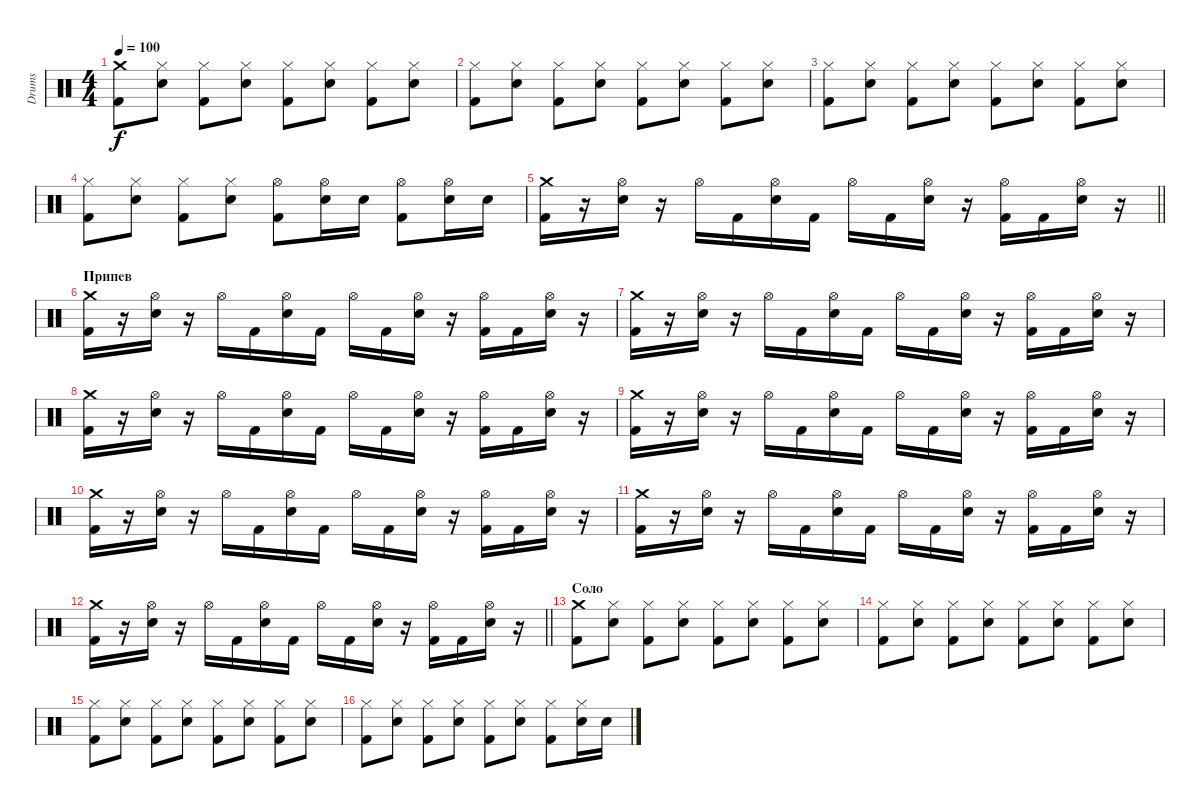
\track ("Drums" "Drums") {instrument percussion}
\staff {score}
\articulation defaults
\ts (4 4)
\tempo 100
\clef neutral
\ks c
("Crash medium (hit)" "Kick (hit) 2").8{dy f} ("Hi-Hat (closed)" "Snare (hit) 2").8 ("Hi-Hat (closed)" "Kick (hit) 2").8 ("Hi-Hat (closed)" "Snare (hit) 2").8 ("Hi-Hat (closed)" "Kick (hit) 2").8 ("Hi-Hat (closed)" "Snare (hit) 2").8 ("Hi-Hat (closed)" "Kick (hit) 2").8 ("Hi-Hat (closed)" "Snare (hit) 2").8 |
("Hi-Hat (closed)" "Kick (hit) 2").8 ("Hi-Hat (closed)" "Snare (hit) 2").8 ("Hi-Hat (closed)" "Kick (hit) 2").8 ("Hi-Hat (closed)" "Snare (hit) 2").8 ("Hi-Hat (closed)" "Kick (hit) 2").8 ("Hi-Hat (closed)" "Snare (hit) 2").8 ("Hi-Hat (closed)" "Kick (hit) 2").8 ("Hi-Hat (closed)" "Snare (hit) 2").8 |
("Hi-Hat (closed)" "Kick (hit) 2").8 ("Hi-Hat (closed)" "Snare (hit) 2").8 ("Hi-Hat (closed)" "Kick (hit) 2").8 ("Hi-Hat (closed)" "Snare (hit) 2").8 ("Hi-Hat (closed)" "Kick (hit) 2").8 ("Hi-Hat (closed)" "Snare (hit) 2").8 ("Hi-Hat (closed)" "Kick (hit) 2").8 ("Hi-Hat (closed)" "Snare (hit) 2").8 |
("Hi-Hat (closed)" "Kick (hit) 2").8 ("Hi-Hat (closed)" "Snare (hit) 2").8 ("Hi-Hat (closed)" "Kick (hit) 2").8 ("Hi-Hat (closed)" "Snare (hit) 2").8 ("Hi-Hat (open)" "Kick (hit) 2").8 ("Hi-Hat (open)" "Snare (hit) 2").16 "Snare (hit) 2".16 ("Hi-Hat (open)" "Kick (hit) 2").8 ("Hi-Hat (open)" "Snare (hit) 2").16 "Snare (hit) 2".16 |
\barLineRight lightlight
("Crash medium (hit)" "Kick (hit) 2").16 r.16 ("Hi-Hat (open)" "Snare (hit) 2").16 r.16 "Hi-Hat (open)".16 "Kick (hit) 2".16 ("Hi-Hat (open)" "Snare (hit) 2").16 "Kick (hit) 2".16 "Hi-Hat (open)".16 "Kick (hit) 2".16 ("Hi-Hat (open)" "Snare (hit) 2").16 r.16 ("Hi-Hat (open)" "Kick (hit) 2").16 "Kick (hit) 2".16 ("Hi-Hat (open)" "Snare (hit) 2").16 r.16 |
\section ("" "Припев")
("Crash medium (hit)" "Kick (hit) 2").16 r.16 ("Hi-Hat (open)" "Snare (hit) 2").16 r.16 "Hi-Hat (open)".16 "Kick (hit) 2".16 ("Hi-Hat (open)" "Snare (hit) 2").16 "Kick (hit) 2".16 "Hi-Hat (open)".16 "Kick (hit) 2".16 ("Hi-Hat (open)" "Snare (hit) 2").16 r.16 ("Hi-Hat (open)" "Kick (hit) 2").16 "Kick (hit) 2".16 ("Hi-Hat (open)" "Snare (hit) 2").16 r.16 |
("Crash medium (hit)" "Kick (hit) 2").16 r.16 ("Hi-Hat (open)" "Snare (hit) 2").16 r.16 "Hi-Hat (open)".16 "Kick (hit) 2".16 ("Hi-Hat (open)" "Snare (hit) 2").16 "Kick (hit) 2".16 "Hi-Hat (open)".16 "Kick (hit) 2".16 ("Hi-Hat (open)" "Snare (hit) 2").16 r.16 ("Hi-Hat (open)" "Kick (hit) 2").16 "Kick (hit) 2".16 ("Hi-Hat (open)" "Snare (hit) 2").16 r.16 |
("Crash medium (hit)" "Kick (hit) 2").16 r.16 ("Hi-Hat (open)" "Snare (hit) 2").16 r.16 "Hi-Hat (open)".16 "Kick (hit) 2".16 ("Hi-Hat (open)" "Snare (hit) 2").16 "Kick (hit) 2".16 "Hi-Hat (open)".16 "Kick (hit) 2".16 ("Hi-Hat (open)" "Snare (hit) 2").16 r.16 ("Hi-Hat (open)" "Kick (hit) 2").16 "Kick (hit) 2".16 ("Hi-Hat (open)" "Snare (hit) 2").16 r.16 |
("Crash medium (hit)" "Kick (hit) 2").16 r.16 ("Hi-Hat (open)" "Snare (hit) 2").16 r.16 "Hi-Hat (open)".16 "Kick (hit) 2".16 ("Hi-Hat (open)" "Snare (hit) 2").16 "Kick (hit) 2".16 "Hi-Hat (open)".16 "Kick (hit) 2".16 ("Hi-Hat (open)" "Snare (hit) 2").16 r.16 ("Hi-Hat (open)" "Kick (hit) 2").16 "Kick (hit) 2".16 ("Hi-Hat (open)" "Snare (hit) 2").16 r.16 |
("Crash medium (hit)" "Kick (hit) 2").16 r.16 ("Hi-Hat (open)" "Snare (hit) 2").16 r.16 "Hi-Hat (open)".16 "Kick (hit) 2".16 ("Hi-Hat (open)" "Snare (hit) 2").16 "Kick (hit) 2".16 "Hi-Hat (open)".16 "Kick (hit) 2".16 ("Hi-Hat (open)" "Snare (hit) 2").16 r.16 ("Hi-Hat (open)" "Kick (hit) 2").16 "Kick (hit) 2".16 ("Hi-Hat (open)" "Snare (hit) 2").16 r.16 |
("Crash medium (hit)" "Kick (hit) 2").16 r.16 ("Hi-Hat (open)" "Snare (hit) 2").16 r.16 "Hi-Hat (open)".16 "Kick (hit) 2".16 ("Hi-Hat (open)" "Snare (hit) 2").16 "Kick (hit) 2".16 "Hi-Hat (open)".16 "Kick (hit) 2".16 ("Hi-Hat (open)" "Snare (hit) 2").16 r.16 ("Hi-Hat (open)" "Kick (hit) 2").16 "Kick (hit) 2".16 ("Hi-Hat (open)" "Snare (hit) 2").16 r.16 |
\barLineRight lightlight
("Crash medium (hit)" "Kick (hit) 2").16 r.16 ("Hi-Hat (open)" "Snare (hit) 2").16 r.16 "Hi-Hat (open)".16 "Kick (hit) 2".16 ("Hi-Hat (open)" "Snare (hit) 2").16 "Kick (hit) 2".16 "Hi-Hat (open)".16 "Kick (hit) 2".16 ("Hi-Hat (open)" "Snare (hit) 2").16 r.16 ("Hi-Hat (open)" "Kick (hit) 2").16 "Kick (hit) 2".16 ("Hi-Hat (open)" "Snare (hit) 2").16 r.16 |
\section ("" "Соло")
("Crash medium (hit)" "Kick (hit) 2").8 ("Hi-Hat (closed)" "Snare (hit) 2").8 ("Hi-Hat (closed)" "Kick (hit) 2").8 ("Hi-Hat (closed)" "Snare (hit) 2").8 ("Hi-Hat (closed)" "Kick (hit) 2").8 ("Hi-Hat (closed)" "Snare (hit) 2").8 ("Hi-Hat (closed)" "Kick (hit) 2").8 ("Hi-Hat (closed)" "Snare (hit) 2").8 |
("Hi-Hat (closed)" "Kick (hit) 2").8 ("Hi-Hat (closed)" "Snare (hit) 2").8 ("Hi-Hat (closed)" "Kick (hit) 2").8 ("Hi-Hat (closed)" "Snare (hit) 2").8 ("Hi-Hat (closed)" "Kick (hit) 2").8 ("Hi-Hat (closed)" "Snare (hit) 2").8 ("Hi-Hat (closed)" "Kick (hit) 2").8 ("Hi-Hat (closed)" "Snare (hit) 2").8 |
("Hi-Hat (closed)" "Kick (hit) 2").8 ("Hi-Hat (closed)" "Snare (hit) 2").8 ("Hi-Hat (closed)" "Kick (hit) 2").8 ("Hi-Hat (closed)" "Snare (hit) 2").8 ("Hi-Hat (closed)" "Kick (hit) 2").8 ("Hi-Hat (closed)" "Snare (hit) 2").8 ("Hi-Hat (closed)" "Kick (hit) 2").8 ("Hi-Hat (closed)" "Snare (hit) 2").8 |
("Hi-Hat (closed)" "Kick (hit) 2").8 ("Hi-Hat (closed)" "Snare (hit) 2").8 ("Hi-Hat (closed)" "Kick (hit) 2").8 ("Hi-Hat (closed)" "Snare (hit) 2").8 ("Hi-Hat (closed)" "Kick (hit) 2").8 ("Hi-Hat (closed)" "Snare (hit) 2").8 ("Hi-Hat (closed)" "Kick (hit) 2").8 ("Hi-Hat (closed)" "Snare (hit) 2").16 "Snare (hit) 2".16
